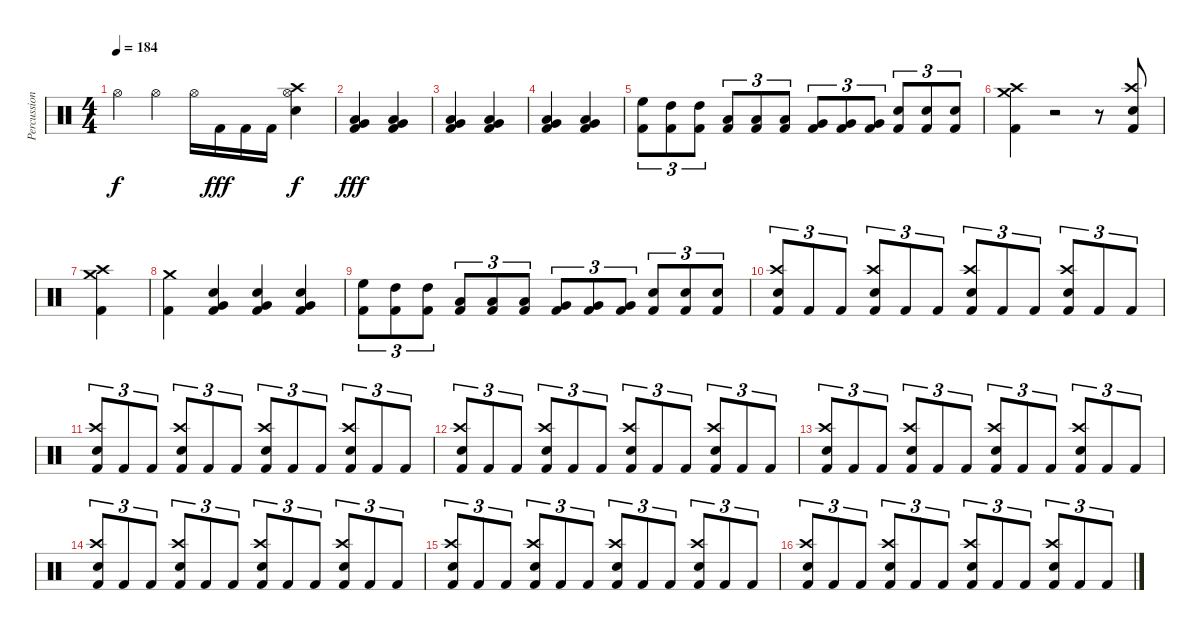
\track ("Percussion" "Percussion") {instrument percussion}
\staff {score}
\articulation defaults
\ts (4 4)
\tempo 184
\clef neutral
\ks c "Hi-Hat (open)".4{dy f} "Hi-Hat (open)".4 "Hi-Hat (open)".16 "Kick (hit) 2".16{dy fff} "Kick (hit) 2".16 "Kick (hit) 2".16
("Crash high (hit)" "Hi-Hat (open)" "Snare (hit) 2").4{dy f} |
("Low Tom (hit)" "Very Low Tom (hit)" "Kick (hit) 2").4{dy fff} ("Low Tom (hit)" "Very Low Tom (hit)" "Kick (hit) 2").4 |
("Low Tom (hit)" "Very Low Tom (hit)" "Kick (hit) 2").4 ("Low Tom (hit)" "Very Low Tom (hit)" "Kick (hit) 2").4 |
("Low Tom (hit)" "Very Low Tom (hit)" "Kick (hit) 2").4 ("Low Tom (hit)" "Very Low Tom (hit)" "Kick (hit) 2").4 |
("High Floor Tom (hit)" "Kick (hit) 2").8{tu (3 2)} ("High Tom (hit)" "Kick (hit) 2").8{tu (3 2)} ("High Tom (hit)" "Kick (hit) 2").8{tu (3 2)} ("Low Tom (hit)" "Kick (hit) 2").8{tu (3 2)} ("Low Tom (hit)" "Kick (hit) 2").8{tu (3 2)} ("Low Tom (hit)" "Kick (hit) 2").8{tu (3 2)} ("Very Low Tom (hit)" "Kick (hit) 2").8{tu (3 2)} ("Very Low Tom (hit)" "Kick (hit) 2").8{tu (3 2)} ("Very Low Tom (hit)" "Kick (hit) 2").8{tu (3 2)} ("Snare (hit) 2" "Kick (hit) 2").8{tu (3 2)} ("Snare (hit) 2" "Kick (hit) 2").8{tu (3 2)} ("Snare (hit) 2" "Kick (hit) 2").8{tu (3 2)} |
("Crash high (hit)" "Crash medium (hit)" "Kick (hit) 2").4 r.2 r.8 ("Crash high (hit)" "Snare (hit) 2" "Kick (hit) 2").8 |
("Crash medium (hit)" "Crash high (hit)" "Kick (hit) 2").4 |
("Crash medium (hit)" "Kick (hit) 2").4 ("Snare (hit) 2" "Very Low Tom (hit)" "Kick (hit) 2").4 ("Snare (hit) 2" "Very Low Tom (hit)" "Kick (hit) 2").4 ("Snare (hit) 2" "Very Low Tom (hit)" "Kick (hit) 2").4 |
("High Floor Tom (hit)" "Kick (hit) 2").8{tu (3 2)} ("High Tom (hit)" "Kick (hit) 2").8{tu (3 2)} ("High Tom (hit)" "Kick (hit) 2").8{tu (3 2)} ("Low Tom (hit)" "Kick (hit) 2").8{tu (3 2)} ("Low Tom (hit)" "Kick (hit) 2").8{tu (3 2)} ("Low Tom (hit)" "Kick (hit) 2").8{tu (3 2)} ("Very Low Tom (hit)" "Kick (hit) 2").8{tu (3 2)} ("Very Low Tom (hit)" "Kick (hit) 2").8{tu (3 2)} ("Very Low Tom (hit)" "Kick (hit) 2").8{tu (3 2)} ("Snare (hit) 2" "Kick (hit) 2").8{tu (3 2)} ("Snare (hit) 2" "Kick (hit) 2").8{tu (3 2)} ("Snare (hit) 2" "Kick (hit) 2").8{tu (3 2)} |
("Crash high (hit)" "Snare (hit) 2" "Kick (hit) 2").8{tu (3 2)} "Kick (hit) 2".8{tu (3 2)} "Kick (hit) 2".8{tu (3 2)} ("Crash high (hit)" "Snare (hit) 2" "Kick (hit) 2").8{tu (3 2)} "Kick (hit) 2".8{tu (3 2)} "Kick (hit) 2".8{tu (3 2)} ("Crash high (hit)" "Snare (hit) 2" "Kick (hit) 2").8{tu (3 2)} "Kick (hit) 2".8{tu (3 2)} "Kick (hit) 2".8{tu (3 2)} ("Crash high (hit)" "Snare (hit) 2" "Kick (hit) 2").8{tu (3 2)} "Kick (hit) 2".8{tu (3 2)} "Kick (hit) 2".8{tu (3 2)} |
("Crash high (hit)" "Snare (hit) 2" "Kick (hit) 2").8{tu (3 2)} "Kick (hit) 2".8{tu (3 2)} "Kick (hit) 2".8{tu (3 2)} ("Crash high (hit)" "Snare (hit) 2" "Kick (hit) 2").8{tu (3 2)} "Kick (hit) 2".8{tu (3 2)} "Kick (hit) 2".8{tu (3 2)} ("Crash high (hit)" "Snare (hit) 2" "Kick (hit) 2").8{tu (3 2)} "Kick (hit) 2".8{tu (3 2)} "Kick (hit) 2".8{tu (3 2)} ("Crash high (hit)" "Snare (hit) 2" "Kick (hit) 2").8{tu (3 2)} "Kick (hit) 2".8{tu (3 2)} "Kick (hit) 2".8{tu (3 2)} |
("Crash high (hit)" "Snare (hit) 2" "Kick (hit) 2").8{tu (3 2)} "Kick (hit) 2".8{tu (3 2)} "Kick (hit) 2".8{tu (3 2)} ("Crash high (hit)" "Snare (hit) 2" "Kick (hit) 2").8{tu (3 2)} "Kick (hit) 2".8{tu (3 2)} "Kick (hit) 2".8{tu (3 2)} ("Crash high (hit)" "Snare (hit) 2" "Kick (hit) 2").8{tu (3 2)} "Kick (hit) 2".8{tu (3 2)} "Kick (hit) 2".8{tu (3 2)} ("Crash high (hit)" "Snare (hit) 2" "Kick (hit) 2").8{tu (3 2)} "Kick (hit) 2".8{tu (3 2)} "Kick (hit) 2".8{tu (3 2)} |
("Crash high (hit)" "Snare (hit) 2" "Kick (hit) 2").8{tu (3 2)} "Kick (hit) 2".8{tu (3 2)} "Kick (hit) 2".8{tu (3 2)} ("Crash high (hit)" "Snare (hit) 2" "Kick (hit) 2").8{tu (3 2)} "Kick (hit) 2".8{tu (3 2)} "Kick (hit) 2".8{tu (3 2)} ("Crash high (hit)" "Snare (hit) 2" "Kick (hit) 2").8{tu (3 2)} "Kick (hit) 2".8{tu (3 2)} "Kick (hit) 2".8{tu (3 2)} ("Crash high (hit)" "Snare (hit) 2" "Kick (hit) 2").8{tu (3 2)} "Kick (hit) 2".8{tu (3 2)} "Kick (hit) 2".8{tu (3 2)} |
("Crash high (hit)" "Snare (hit) 2" "Kick (hit) 2").8{tu (3 2)} "Kick (hit) 2".8{tu (3 2)} "Kick (hit) 2".8{tu (3 2)} ("Crash high (hit)" "Snare (hit) 2" "Kick (hit) 2").8{tu (3 2)} "Kick (hit) 2".8{tu (3 2)} "Kick (hit) 2".8{tu (3 2)} ("Crash high (hit)" "Snare (hit) 2" "Kick (hit) 2").8{tu (3 2)} "Kick (hit) 2".8{tu (3 2)} "Kick (hit) 2".8{tu (3 2)} ("Crash high (hit)" "Snare (hit) 2" "Kick (hit) 2").8{tu (3 2)} "Kick (hit) 2".8{tu (3 2)} "Kick (hit) 2".8{tu (3 2)} |
("Crash high (hit)" "Snare (hit) 2" "Kick (hit) 2").8{tu (3 2)} "Kick (hit) 2".8{tu (3 2)} "Kick (hit) 2".8{tu (3 2)} ("Crash high (hit)" "Snare (hit) 2" "Kick (hit) 2").8{tu (3 2)} "Kick (hit) 2".8{tu (3 2)} "Kick (hit) 2".8{tu (3 2)} ("Crash high (hit)" "Snare (hit) 2" "Kick (hit) 2").8{tu (3 2)} "Kick (hit) 2".8{tu (3 2)} "Kick (hit) 2".8{tu (3 2)} ("Crash high (hit)" "Snare (hit) 2" "Kick (hit) 2").8{tu (3 2)} "Kick (hit) 2".8{tu (3 2)} "Kick (hit) 2".8{tu (3 2)} |
("Crash high (hit)" "Snare (hit) 2" "Kick (hit) 2").8{tu (3 2)} "Kick (hit) 2".8{tu (3 2)} "Kick (hit) 2".8{tu (3 2)} ("Crash high (hit)" "Snare (hit) 2" "Kick (hit) 2").8{tu (3 2)} "Kick (hit) 2".8{tu (3 2)} "Kick (hit) 2".8{tu (3 2)} ("Crash high (hit)" "Snare (hit) 2" "Kick (hit) 2").8{tu (3 2)} "Kick (hit) 2".8{tu (3 2)} "Kick (hit) 2".8{tu (3 2)} ("Crash high (hit)" "Snare (hit) 2" "Kick (hit) 2").8{tu (3 2)} "Kick (hit) 2".8{tu (3 2)} "Kick (hit) 2".8{tu (3 2)}
